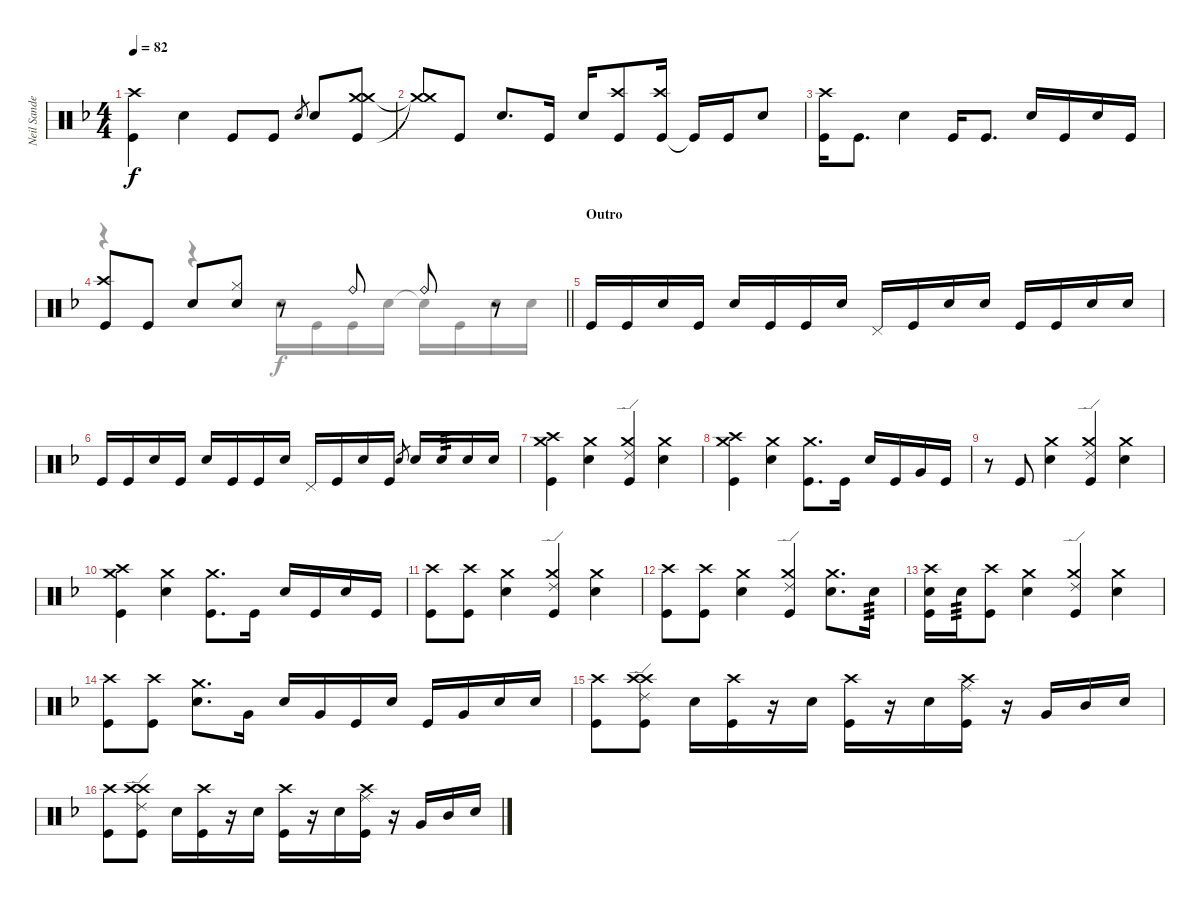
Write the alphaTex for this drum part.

\track ("Neil Sanderson" "Neil Sande") {instrument percussion}
\staff {score}
\articulation defaults
\voice
\ts (4 4)
\tempo 82
\clef neutral
\ks f
("Crash high (hit)" "Kick (hit)").4{dy f} "Snare (hit) 2".4 "Kick (hit)".8 "Kick (hit)".8 "Snare (hit) 2".8{gr} "Snare (hit) 2".8{beam Up} ("Kick (hit)" "Crash medium (hit)" "Crash medium (hit)").8{beam Up} |
("Crash medium (hit)"{t} "Crash medium (hit)"{t}).8{beam Up} "Kick (hit)".8{beam Up} "Snare (hit) 2".8{d} "Kick (hit)".16 "Snare (hit) 2".16{beam Up} ("Kick (hit)" "Crash high (hit)").8{beam Up} ("Kick (hit)" "Crash high (hit)").16{beam Up} "Kick (hit)"{t}.16 "Kick (hit)".16 "Snare (hit) 2".8 |
("Kick (hit)" "Crash high (hit)").16 "Kick (hit)".8{d} "Snare (hit) 2".4 "Kick (hit)".16 "Kick (hit)".8{d} "Snare (hit) 2".16 "Kick (hit)".16 "Snare (hit) 2".16 "Kick (hit)".16 |
\barLineRight lightlight
("Crash high (hit)" "Kick (hit)").8 "Kick (hit)".8 "Snare (hit) 2".8 ("Snare (hit) 2" "Hi-Hat (closed)").8 r.8 "Ride (bell)".8{beam Up} "Ride (bell)".8{beam Up} r.8 |
\section ("" "Outro")
"Kick (hit)".16 "Kick (hit)".16 "Snare (hit) 2".16 "Kick (hit)".16 "Snare (hit) 2".16 "Kick (hit)".16 "Kick (hit)".16 "Snare (hit) 2".16 "Pedal Hi-Hat (hit)".16 "Kick (hit)".16 "Snare (hit) 2".16 "Snare (hit) 2".16 "Kick (hit)".16 "Kick (hit)".16 "Snare (hit) 2".16 "Snare (hit) 2".16 |
"Kick (hit)".16 "Kick (hit)".16 "Snare (hit) 2".16 "Kick (hit)".16 "Snare (hit) 2".16 "Kick (hit)".16 "Kick (hit)".16 "Snare (hit) 2".16 "Pedal Hi-Hat (hit)".16 "Kick (hit)".16 "Snare (hit) 2".16 "Kick (hit)".16 "Snare (hit) 2".8{gr} "Snare (hit) 2".16{beam Up} "Snare (hit) 2".16{tp 3 beam Up} "Snare (hit) 2".16{beam Up} "Snare (hit) 2".16{beam Up} |
("Crash medium (hit)" "Kick (hit)" "Crash high (hit)").4 ("Crash medium (hit)" "Snare (hit) 2").4 ("Crash medium (hit)" "Kick (hit)" "Ride (edge) 2").4 ("Crash medium (hit)" "Snare (hit) 2").4 |
("Crash medium (hit)" "Kick (hit)" "Crash high (hit)").4 ("Crash medium (hit)" "Snare (hit) 2").4 ("Crash medium (hit)" "Kick (hit)").8{d} "Kick (hit)".16 "Snare (hit) 2".16 "Kick (hit)".16 "Very Low Tom (hit)".16 "Kick (hit)".16 |
r.8 "Kick (hit)".8 ("Crash medium (hit)" "Snare (hit) 2").4 ("Crash medium (hit)" "Kick (hit)" "Ride (edge) 2").4 ("Crash medium (hit)" "Snare (hit) 2").4 |
("Crash medium (hit)" "Kick (hit)" "Crash high (hit)").4 ("Crash medium (hit)" "Snare (hit) 2").4 ("Crash medium (hit)" "Kick (hit)").8{d} "Kick (hit)".16 "Snare (hit) 2".16 "Kick (hit)".16 "Snare (hit) 2".16 "Kick (hit)".16 |
("Crash high (hit)" "Kick (hit)").8 ("Crash high (hit)" "Kick (hit)").8 ("Crash medium (hit)" "Snare (hit) 2").4 ("Crash medium (hit)" "Kick (hit)" "Ride (edge) 2").4 ("Crash medium (hit)" "Snare (hit) 2").4 |
("Crash high (hit)" "Kick (hit)").8 ("Crash high (hit)" "Kick (hit)").8 ("Crash medium (hit)" "Snare (hit) 2").4 ("Crash medium (hit)" "Kick (hit)" "Ride (edge) 2").4 ("Crash medium (hit)" "Snare (hit) 2").8{d} "Snare (hit) 2".16{tp 3} |
("Crash high (hit)" "Kick (hit)" "Snare (hit) 2").16 "Snare (hit) 2".16{tp 3} ("Crash high (hit)" "Kick (hit)").8 ("Crash medium (hit)" "Snare (hit) 2").4 ("Crash medium (hit)" "Kick (hit)" "Ride (edge) 2").4 ("Crash medium (hit)" "Snare (hit) 2").4 |
("Crash high (hit)" "Kick (hit)").8 ("Crash high (hit)" "Kick (hit)").8 ("Crash medium (hit)" "Snare (hit) 2").8{d} "Very Low Tom (hit)".16 "Snare (hit) 2".16 "Very Low Tom (hit)".16 "Kick (hit)".16 "Snare (hit) 2".16 "Kick (hit)".16 "Very Low Tom (hit)".16 "Snare (hit) 2".16 "Snare (hit) 2".16 |
("Crash high (hit)" "Kick (hit)").8 ("Ride (edge) 2" "Kick (hit)" "Crash high (hit)" "Crash high (hit)").8 "Snare (hit) 2".16 ("Crash high (hit)" "Kick (hit)").16 r.16 "Snare (hit) 2".16 ("Crash high (hit)" "Kick (hit)").16 r.16 "Snare (hit) 2".16 ("Ride (middle)" "Kick (hit)" "Crash high (hit)").16 r.16 "Very Low Tom (hit)".16 "Mid Tom (hit)".16 "Snare (hit) 2".16 |
("Crash high (hit)" "Kick (hit)").8 ("Ride (edge) 2" "Kick (hit)" "Crash high (hit)" "Crash high (hit)").8 "Snare (hit) 2".16 ("Crash high (hit)" "Kick (hit)").16 r.16 "Snare (hit) 2".16 ("Crash high (hit)" "Kick (hit)").16 r.16 "Snare (hit) 2".16 ("Ride (middle)" "Kick (hit)" "Crash high (hit)").16 r.16 "Very Low Tom (hit)".16 "Mid Tom (hit)".16 "Snare (hit) 2".16
\voice
\clef neutral
\ottava regular
\simile none
\ks f
|
|
|
\barLineRight lightlight
r.4 r.4 "Snare (hit) 2".16{beam Down} "Kick (hit)".16{beam Down} "Kick (hit)".16{beam Down} "Snare (hit) 2".16{beam Down} "Snare (hit) 2"{t}.16{beam Down} "Kick (hit)".16{beam Down} "Snare (hit) 2".16{beam Down} "Snare (hit) 2".16{beam Down} |
|
|
|
|
|
|
|
|
|
|
|
